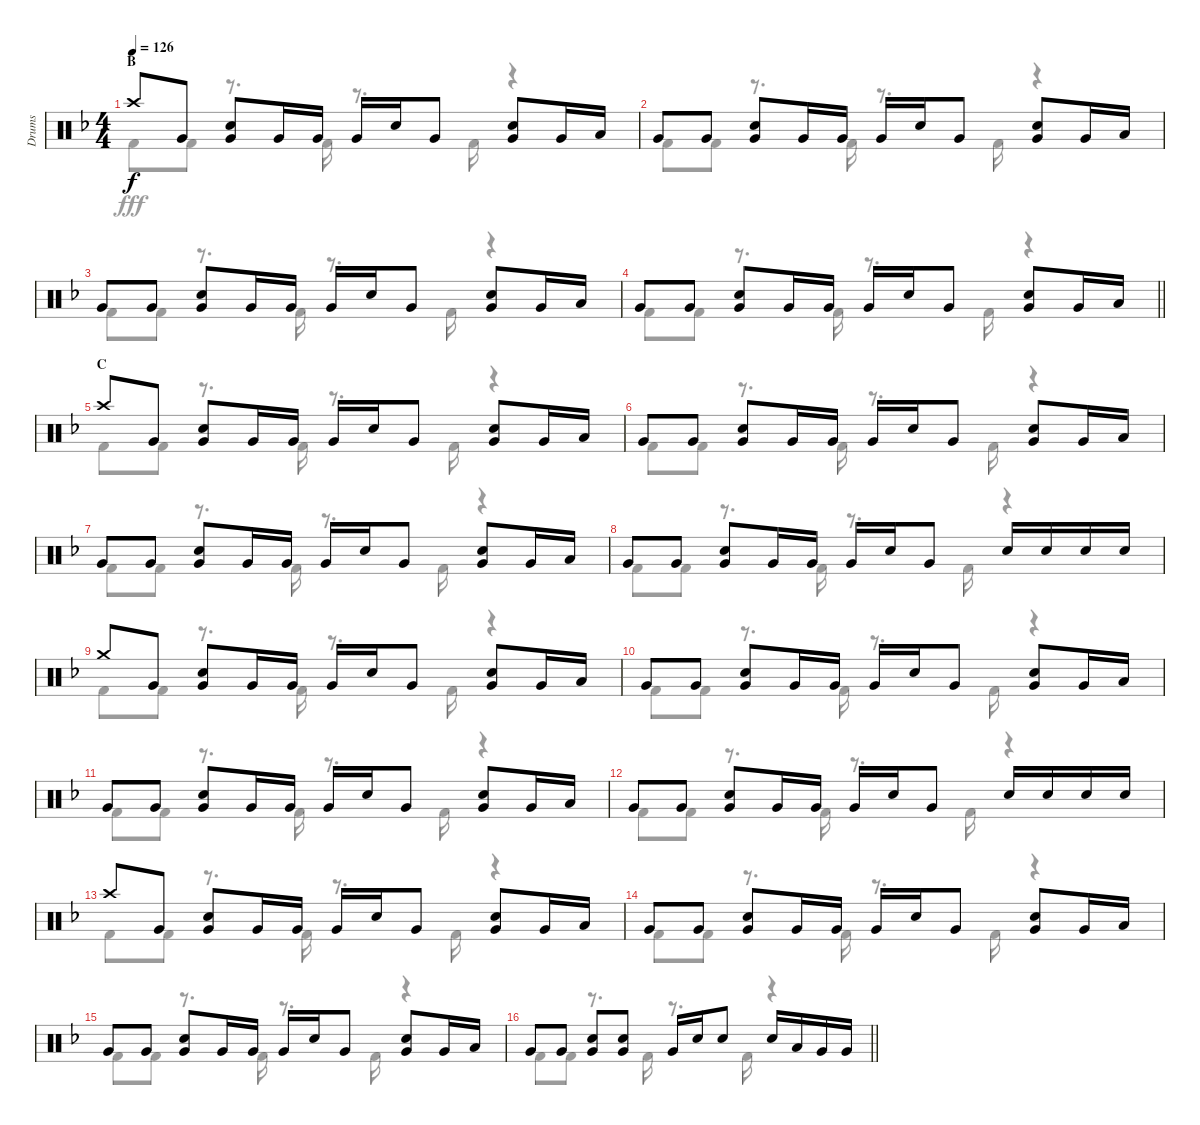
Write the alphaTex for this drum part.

\track ("Drums" "Drums") {instrument percussion}
\staff {score}
\articulation defaults
\voice
\ts (4 4)
\section ("" "B")
\tempo 126
\clef neutral
\ks f "Crash high (hit)".8{dy f} "Very Low Tom (hit)".8
("Snare (hit) 2" "Very Low Tom (hit)").8 "Very Low Tom (hit)".16 "Very Low Tom (hit)".16 "Very Low Tom (hit)".16 "Snare (hit) 2".16 "Very Low Tom (hit)".8 ("Snare (hit) 2" "Very Low Tom (hit)").8 "Very Low Tom (hit)".16 "Low Tom (hit)".16 |
"Very Low Tom (hit)".8 "Very Low Tom (hit)".8 ("Snare (hit) 2" "Very Low Tom (hit)").8 "Very Low Tom (hit)".16 "Very Low Tom (hit)".16 "Very Low Tom (hit)".16 "Snare (hit) 2".16 "Very Low Tom (hit)".8 ("Snare (hit) 2" "Very Low Tom (hit)").8 "Very Low Tom (hit)".16 "Low Tom (hit)".16 |
"Very Low Tom (hit)".8 "Very Low Tom (hit)".8 ("Snare (hit) 2" "Very Low Tom (hit)").8 "Very Low Tom (hit)".16 "Very Low Tom (hit)".16 "Very Low Tom (hit)".16 "Snare (hit) 2".16 "Very Low Tom (hit)".8 ("Snare (hit) 2" "Very Low Tom (hit)").8 "Very Low Tom (hit)".16 "Low Tom (hit)".16 |
\barLineRight lightlight "Very Low Tom (hit)".8 "Very Low Tom (hit)".8
("Snare (hit) 2" "Very Low Tom (hit)").8 "Very Low Tom (hit)".16 "Very Low Tom (hit)".16 "Very Low Tom (hit)".16 "Snare (hit) 2".16 "Very Low Tom (hit)".8 ("Snare (hit) 2" "Very Low Tom (hit)").8 "Very Low Tom (hit)".16 "Low Tom (hit)".16 |
\section ("" "C")
"Crash high (hit)".8 "Very Low Tom (hit)".8 ("Snare (hit) 2" "Very Low Tom (hit)").8 "Very Low Tom (hit)".16 "Very Low Tom (hit)".16 "Very Low Tom (hit)".16 "Snare (hit) 2".16 "Very Low Tom (hit)".8 ("Snare (hit) 2" "Very Low Tom (hit)").8 "Very Low Tom (hit)".16 "Low Tom (hit)".16 |
"Very Low Tom (hit)".8 "Very Low Tom (hit)".8 ("Snare (hit) 2" "Very Low Tom (hit)").8 "Very Low Tom (hit)".16 "Very Low Tom (hit)".16 "Very Low Tom (hit)".16 "Snare (hit) 2".16 "Very Low Tom (hit)".8 ("Snare (hit) 2" "Very Low Tom (hit)").8 "Very Low Tom (hit)".16 "Low Tom (hit)".16 |
"Very Low Tom (hit)".8 "Very Low Tom (hit)".8 ("Snare (hit) 2" "Very Low Tom (hit)").8 "Very Low Tom (hit)".16 "Very Low Tom (hit)".16 "Very Low Tom (hit)".16 "Snare (hit) 2".16 "Very Low Tom (hit)".8 ("Snare (hit) 2" "Very Low Tom (hit)").8 "Very Low Tom (hit)".16 "Low Tom (hit)".16 |
"Very Low Tom (hit)".8 "Very Low Tom (hit)".8 ("Snare (hit) 2" "Very Low Tom (hit)").8 "Very Low Tom (hit)".16 "Very Low Tom (hit)".16 "Very Low Tom (hit)".16 "Snare (hit) 2".16 "Very Low Tom (hit)".8 "Snare (hit) 2".16 "Snare (hit) 2".16 "Snare (hit) 2".16 "Snare (hit) 2".16 |
"Crash medium (hit)".8 "Very Low Tom (hit)".8 ("Snare (hit) 2" "Very Low Tom (hit)").8 "Very Low Tom (hit)".16 "Very Low Tom (hit)".16 "Very Low Tom (hit)".16 "Snare (hit) 2".16 "Very Low Tom (hit)".8 ("Snare (hit) 2" "Very Low Tom (hit)").8 "Very Low Tom (hit)".16 "Low Tom (hit)".16 |
"Very Low Tom (hit)".8 "Very Low Tom (hit)".8 ("Snare (hit) 2" "Very Low Tom (hit)").8 "Very Low Tom (hit)".16 "Very Low Tom (hit)".16 "Very Low Tom (hit)".16 "Snare (hit) 2".16 "Very Low Tom (hit)".8 ("Snare (hit) 2" "Very Low Tom (hit)").8 "Very Low Tom (hit)".16 "Low Tom (hit)".16 |
"Very Low Tom (hit)".8 "Very Low Tom (hit)".8 ("Snare (hit) 2" "Very Low Tom (hit)").8 "Very Low Tom (hit)".16 "Very Low Tom (hit)".16 "Very Low Tom (hit)".16 "Snare (hit) 2".16 "Very Low Tom (hit)".8 ("Snare (hit) 2" "Very Low Tom (hit)").8 "Very Low Tom (hit)".16 "Low Tom (hit)".16 |
"Very Low Tom (hit)".8 "Very Low Tom (hit)".8 ("Snare (hit) 2" "Very Low Tom (hit)").8 "Very Low Tom (hit)".16 "Very Low Tom (hit)".16 "Very Low Tom (hit)".16 "Snare (hit) 2".16 "Very Low Tom (hit)".8 "Snare (hit) 2".16 "Snare (hit) 2".16 "Snare (hit) 2".16 "Snare (hit) 2".16 |
"Crash high (hit)".8 "Very Low Tom (hit)".8 ("Snare (hit) 2" "Very Low Tom (hit)").8 "Very Low Tom (hit)".16 "Very Low Tom (hit)".16 "Very Low Tom (hit)".16 "Snare (hit) 2".16 "Very Low Tom (hit)".8 ("Snare (hit) 2" "Very Low Tom (hit)").8 "Very Low Tom (hit)".16 "Low Tom (hit)".16 |
"Very Low Tom (hit)".8 "Very Low Tom (hit)".8 ("Snare (hit) 2" "Very Low Tom (hit)").8 "Very Low Tom (hit)".16 "Very Low Tom (hit)".16 "Very Low Tom (hit)".16 "Snare (hit) 2".16 "Very Low Tom (hit)".8 ("Snare (hit) 2" "Very Low Tom (hit)").8 "Very Low Tom (hit)".16 "Low Tom (hit)".16 |
"Very Low Tom (hit)".8 "Very Low Tom (hit)".8 ("Snare (hit) 2" "Very Low Tom (hit)").8 "Very Low Tom (hit)".16 "Very Low Tom (hit)".16 "Very Low Tom (hit)".16 "Snare (hit) 2".16 "Very Low Tom (hit)".8 ("Snare (hit) 2" "Very Low Tom (hit)").8 "Very Low Tom (hit)".16 "Low Tom (hit)".16 |
\barLineRight lightlight "Very Low Tom (hit)".8 "Very Low Tom (hit)".8
("Snare (hit) 2" "Very Low Tom (hit)").8 ("Snare (hit) 2" "Very Low Tom (hit)").8 "Very Low Tom (hit)".16 "Snare (hit) 2".16 "Snare (hit) 2".8 "Snare (hit) 2".16 "Low Tom (hit)".16 "Very Low Tom (hit)".16 "Very Low Tom (hit)".16
\voice
\clef neutral
\ottava regular
\simile none
\ks f "Kick (hit) 2".8{dy fff} "Kick (hit) 2".8
r.8{d} "Kick (hit) 2".16 r.8{d} "Kick (hit) 2".16 r.4 |
"Kick (hit) 2".8 "Kick (hit) 2".8 r.8{d} "Kick (hit) 2".16 r.8{d} "Kick (hit) 2".16 r.4 |
"Kick (hit) 2".8 "Kick (hit) 2".8 r.8{d} "Kick (hit) 2".16 r.8{d} "Kick (hit) 2".16 r.4 |
\barLineRight lightlight "Kick (hit) 2".8 "Kick (hit) 2".8
r.8{d} "Kick (hit) 2".16 r.8{d} "Kick (hit) 2".16 r.4 |
"Kick (hit) 2".8 "Kick (hit) 2".8 r.8{d} "Kick (hit) 2".16 r.8{d} "Kick (hit) 2".16 r.4 |
"Kick (hit) 2".8 "Kick (hit) 2".8 r.8{d} "Kick (hit) 2".16 r.8{d} "Kick (hit) 2".16 r.4 |
"Kick (hit) 2".8 "Kick (hit) 2".8 r.8{d} "Kick (hit) 2".16 r.8{d} "Kick (hit) 2".16 r.4 |
"Kick (hit) 2".8 "Kick (hit) 2".8 r.8{d} "Kick (hit) 2".16 r.8{d} "Kick (hit) 2".16 r.4 |
"Kick (hit) 2".8 "Kick (hit) 2".8 r.8{d} "Kick (hit) 2".16 r.8{d} "Kick (hit) 2".16 r.4 |
"Kick (hit) 2".8 "Kick (hit) 2".8 r.8{d} "Kick (hit) 2".16 r.8{d} "Kick (hit) 2".16 r.4 |
"Kick (hit) 2".8 "Kick (hit) 2".8 r.8{d} "Kick (hit) 2".16 r.8{d} "Kick (hit) 2".16 r.4 |
"Kick (hit) 2".8 "Kick (hit) 2".8 r.8{d} "Kick (hit) 2".16 r.8{d} "Kick (hit) 2".16 r.4 |
"Kick (hit) 2".8 "Kick (hit) 2".8 r.8{d} "Kick (hit) 2".16 r.8{d} "Kick (hit) 2".16 r.4 |
"Kick (hit) 2".8 "Kick (hit) 2".8 r.8{d} "Kick (hit) 2".16 r.8{d} "Kick (hit) 2".16 r.4 |
"Kick (hit) 2".8 "Kick (hit) 2".8 r.8{d} "Kick (hit) 2".16 r.8{d} "Kick (hit) 2".16 r.4 |
\barLineRight lightlight "Kick (hit) 2".8 "Kick (hit) 2".8
r.8{d} "Kick (hit) 2".16 r.8{d} "Kick (hit) 2".16 r.4
